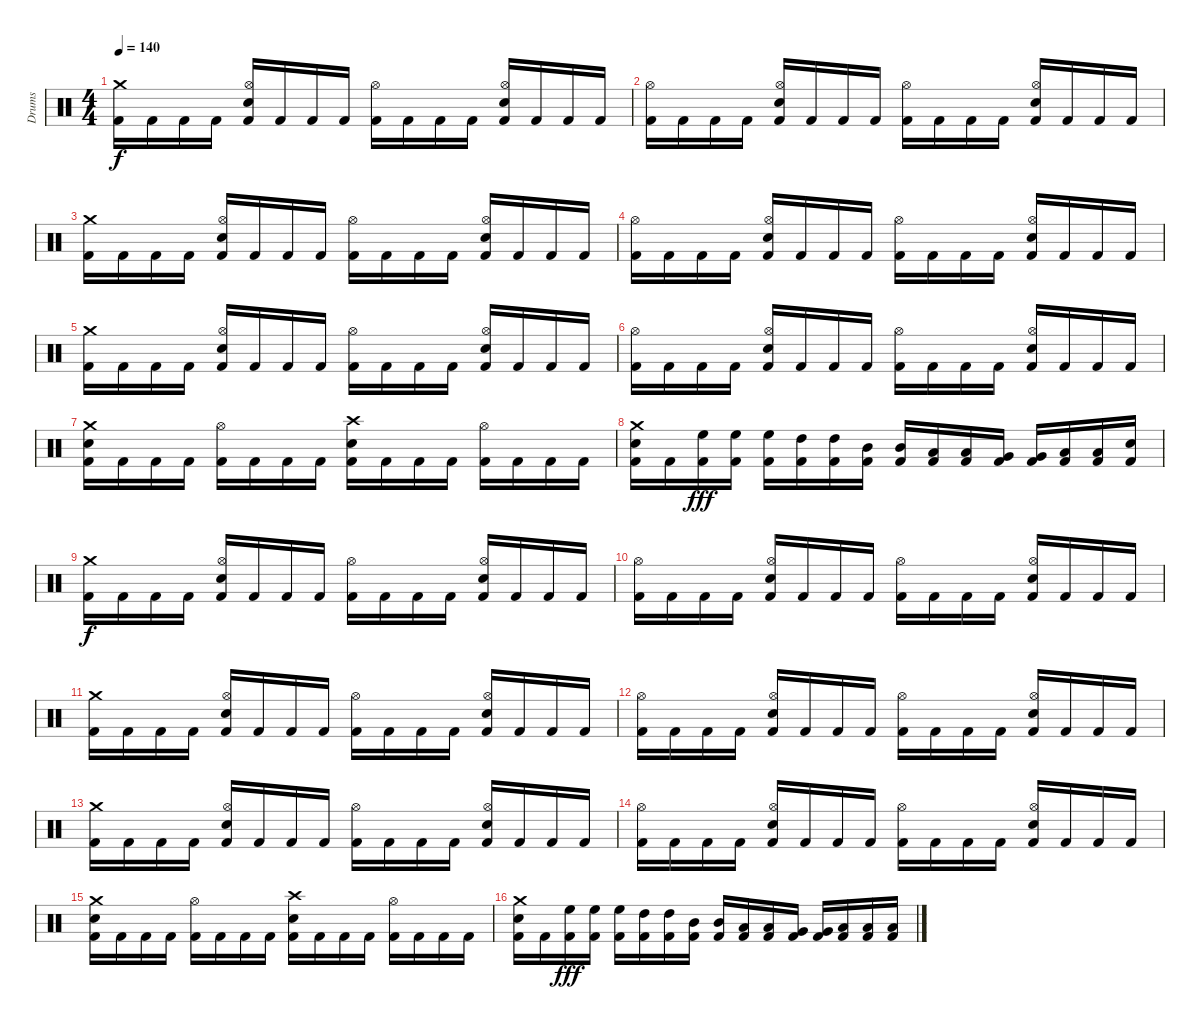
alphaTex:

\track ("Drums" "Drums") {instrument percussion}
\staff {score}
\articulation defaults
\ts (4 4)
\tempo 140
\clef neutral
\ks c
("Crash medium (hit)" "Kick (hit) 2").16{dy f} "Kick (hit) 2".16 "Kick (hit) 2".16 "Kick (hit) 2".16 ("Hi-Hat (open)" "Electric Snare (hit)" "Kick (hit) 2").16 "Kick (hit) 2".16 "Kick (hit) 2".16 "Kick (hit) 2".16 ("Hi-Hat (open)" "Kick (hit) 2").16 "Kick (hit) 2".16 "Kick (hit) 2".16 "Kick (hit) 2".16 ("Hi-Hat (open)" "Electric Snare (hit)" "Kick (hit) 2").16 "Kick (hit) 2".16 "Kick (hit) 2".16 "Kick (hit) 2".16 |
("Hi-Hat (open)" "Kick (hit) 2").16 "Kick (hit) 2".16 "Kick (hit) 2".16 "Kick (hit) 2".16 ("Hi-Hat (open)" "Electric Snare (hit)" "Kick (hit) 2").16 "Kick (hit) 2".16 "Kick (hit) 2".16 "Kick (hit) 2".16 ("Hi-Hat (open)" "Kick (hit) 2").16 "Kick (hit) 2".16 "Kick (hit) 2".16 "Kick (hit) 2".16 ("Hi-Hat (open)" "Electric Snare (hit)" "Kick (hit) 2").16 "Kick (hit) 2".16 "Kick (hit) 2".16 "Kick (hit) 2".16 |
("Crash medium (hit)" "Kick (hit) 2").16 "Kick (hit) 2".16 "Kick (hit) 2".16 "Kick (hit) 2".16 ("Hi-Hat (open)" "Electric Snare (hit)" "Kick (hit) 2").16 "Kick (hit) 2".16 "Kick (hit) 2".16 "Kick (hit) 2".16 ("Hi-Hat (open)" "Kick (hit) 2").16 "Kick (hit) 2".16 "Kick (hit) 2".16 "Kick (hit) 2".16 ("Hi-Hat (open)" "Electric Snare (hit)" "Kick (hit) 2").16 "Kick (hit) 2".16 "Kick (hit) 2".16 "Kick (hit) 2".16 |
("Hi-Hat (open)" "Kick (hit) 2").16 "Kick (hit) 2".16 "Kick (hit) 2".16 "Kick (hit) 2".16 ("Hi-Hat (open)" "Electric Snare (hit)" "Kick (hit) 2").16 "Kick (hit) 2".16 "Kick (hit) 2".16 "Kick (hit) 2".16 ("Hi-Hat (open)" "Kick (hit) 2").16 "Kick (hit) 2".16 "Kick (hit) 2".16 "Kick (hit) 2".16 ("Hi-Hat (open)" "Electric Snare (hit)" "Kick (hit) 2").16 "Kick (hit) 2".16 "Kick (hit) 2".16 "Kick (hit) 2".16 |
("Crash medium (hit)" "Kick (hit) 2").16 "Kick (hit) 2".16 "Kick (hit) 2".16 "Kick (hit) 2".16 ("Hi-Hat (open)" "Electric Snare (hit)" "Kick (hit) 2").16 "Kick (hit) 2".16 "Kick (hit) 2".16 "Kick (hit) 2".16 ("Hi-Hat (open)" "Kick (hit) 2").16 "Kick (hit) 2".16 "Kick (hit) 2".16 "Kick (hit) 2".16 ("Hi-Hat (open)" "Electric Snare (hit)" "Kick (hit) 2").16 "Kick (hit) 2".16 "Kick (hit) 2".16 "Kick (hit) 2".16 |
("Hi-Hat (open)" "Kick (hit) 2").16 "Kick (hit) 2".16 "Kick (hit) 2".16 "Kick (hit) 2".16 ("Hi-Hat (open)" "Electric Snare (hit)" "Kick (hit) 2").16 "Kick (hit) 2".16 "Kick (hit) 2".16 "Kick (hit) 2".16 ("Hi-Hat (open)" "Kick (hit) 2").16 "Kick (hit) 2".16 "Kick (hit) 2".16 "Kick (hit) 2".16 ("Hi-Hat (open)" "Electric Snare (hit)" "Kick (hit) 2").16 "Kick (hit) 2".16 "Kick (hit) 2".16 "Kick (hit) 2".16 |
("Crash medium (hit)" "Electric Snare (hit)" "Kick (hit) 2").16 "Kick (hit) 2".16 "Kick (hit) 2".16 "Kick (hit) 2".16 ("Hi-Hat (open)" "Kick (hit) 2").16 "Kick (hit) 2".16 "Kick (hit) 2".16 "Kick (hit) 2".16 ("Crash high (hit)" "Electric Snare (hit)" "Kick (hit) 2").16 "Kick (hit) 2".16 "Kick (hit) 2".16 "Kick (hit) 2".16 ("Hi-Hat (open)" "Kick (hit) 2").16 "Kick (hit) 2".16 "Kick (hit) 2".16 "Kick (hit) 2".16 |
("Crash medium (hit)" "Electric Snare (hit)" "Kick (hit) 2").16 "Kick (hit) 2".16 ("High Floor Tom (hit)" "Kick (hit) 2").16{dy fff} ("High Floor Tom (hit)" "Kick (hit) 2").16 ("High Floor Tom (hit)" "Kick (hit) 2").16 ("High Tom (hit)" "Kick (hit) 2").16 ("High Tom (hit)" "Kick (hit) 2").16 ("Mid Tom (hit)" "Kick (hit) 2").16 ("Mid Tom (hit)" "Kick (hit) 2").16 ("Low Tom (hit)" "Kick (hit) 2").16 ("Low Tom (hit)" "Kick (hit) 2").16 ("Very Low Tom (hit)" "Kick (hit) 2").16 ("Very Low Tom (hit)" "Kick (hit) 2").16 ("Low Floor Tom (hit)" "Kick (hit) 2").16 ("Low Floor Tom (hit)" "Kick (hit) 2").16 ("Electric Snare (hit)" "Kick (hit) 2").16 |
("Crash medium (hit)" "Kick (hit) 2").16{dy f} "Kick (hit) 2".16 "Kick (hit) 2".16 "Kick (hit) 2".16 ("Hi-Hat (open)" "Electric Snare (hit)" "Kick (hit) 2").16 "Kick (hit) 2".16 "Kick (hit) 2".16 "Kick (hit) 2".16 ("Hi-Hat (open)" "Kick (hit) 2").16 "Kick (hit) 2".16 "Kick (hit) 2".16 "Kick (hit) 2".16 ("Hi-Hat (open)" "Electric Snare (hit)" "Kick (hit) 2").16 "Kick (hit) 2".16 "Kick (hit) 2".16 "Kick (hit) 2".16 |
("Hi-Hat (open)" "Kick (hit) 2").16 "Kick (hit) 2".16 "Kick (hit) 2".16 "Kick (hit) 2".16 ("Hi-Hat (open)" "Electric Snare (hit)" "Kick (hit) 2").16 "Kick (hit) 2".16 "Kick (hit) 2".16 "Kick (hit) 2".16 ("Hi-Hat (open)" "Kick (hit) 2").16 "Kick (hit) 2".16 "Kick (hit) 2".16 "Kick (hit) 2".16 ("Hi-Hat (open)" "Electric Snare (hit)" "Kick (hit) 2").16 "Kick (hit) 2".16 "Kick (hit) 2".16 "Kick (hit) 2".16 |
("Crash medium (hit)" "Kick (hit) 2").16 "Kick (hit) 2".16 "Kick (hit) 2".16 "Kick (hit) 2".16 ("Hi-Hat (open)" "Electric Snare (hit)" "Kick (hit) 2").16 "Kick (hit) 2".16 "Kick (hit) 2".16 "Kick (hit) 2".16 ("Hi-Hat (open)" "Kick (hit) 2").16 "Kick (hit) 2".16 "Kick (hit) 2".16 "Kick (hit) 2".16 ("Hi-Hat (open)" "Electric Snare (hit)" "Kick (hit) 2").16 "Kick (hit) 2".16 "Kick (hit) 2".16 "Kick (hit) 2".16 |
("Hi-Hat (open)" "Kick (hit) 2").16 "Kick (hit) 2".16 "Kick (hit) 2".16 "Kick (hit) 2".16 ("Hi-Hat (open)" "Electric Snare (hit)" "Kick (hit) 2").16 "Kick (hit) 2".16 "Kick (hit) 2".16 "Kick (hit) 2".16 ("Hi-Hat (open)" "Kick (hit) 2").16 "Kick (hit) 2".16 "Kick (hit) 2".16 "Kick (hit) 2".16 ("Hi-Hat (open)" "Electric Snare (hit)" "Kick (hit) 2").16 "Kick (hit) 2".16 "Kick (hit) 2".16 "Kick (hit) 2".16 |
("Crash medium (hit)" "Kick (hit) 2").16 "Kick (hit) 2".16 "Kick (hit) 2".16 "Kick (hit) 2".16 ("Hi-Hat (open)" "Electric Snare (hit)" "Kick (hit) 2").16 "Kick (hit) 2".16 "Kick (hit) 2".16 "Kick (hit) 2".16 ("Hi-Hat (open)" "Kick (hit) 2").16 "Kick (hit) 2".16 "Kick (hit) 2".16 "Kick (hit) 2".16 ("Hi-Hat (open)" "Electric Snare (hit)" "Kick (hit) 2").16 "Kick (hit) 2".16 "Kick (hit) 2".16 "Kick (hit) 2".16 |
("Hi-Hat (open)" "Kick (hit) 2").16 "Kick (hit) 2".16 "Kick (hit) 2".16 "Kick (hit) 2".16 ("Hi-Hat (open)" "Electric Snare (hit)" "Kick (hit) 2").16 "Kick (hit) 2".16 "Kick (hit) 2".16 "Kick (hit) 2".16 ("Hi-Hat (open)" "Kick (hit) 2").16 "Kick (hit) 2".16 "Kick (hit) 2".16 "Kick (hit) 2".16 ("Hi-Hat (open)" "Electric Snare (hit)" "Kick (hit) 2").16 "Kick (hit) 2".16 "Kick (hit) 2".16 "Kick (hit) 2".16 |
("Crash medium (hit)" "Electric Snare (hit)" "Kick (hit) 2").16 "Kick (hit) 2".16 "Kick (hit) 2".16 "Kick (hit) 2".16 ("Hi-Hat (open)" "Kick (hit) 2").16 "Kick (hit) 2".16 "Kick (hit) 2".16 "Kick (hit) 2".16 ("Crash high (hit)" "Electric Snare (hit)" "Kick (hit) 2").16 "Kick (hit) 2".16 "Kick (hit) 2".16 "Kick (hit) 2".16 ("Hi-Hat (open)" "Kick (hit) 2").16 "Kick (hit) 2".16 "Kick (hit) 2".16 "Kick (hit) 2".16 |
("Crash medium (hit)" "Electric Snare (hit)" "Kick (hit) 2").16 "Kick (hit) 2".16 ("High Floor Tom (hit)" "Kick (hit) 2").16{dy fff} ("High Floor Tom (hit)" "Kick (hit) 2").16 ("High Floor Tom (hit)" "Kick (hit) 2").16 ("High Tom (hit)" "Kick (hit) 2").16 ("High Tom (hit)" "Kick (hit) 2").16 ("Mid Tom (hit)" "Kick (hit) 2").16 ("Mid Tom (hit)" "Kick (hit) 2").16 ("Low Tom (hit)" "Kick (hit) 2").16 ("Low Tom (hit)" "Kick (hit) 2").16 ("Very Low Tom (hit)" "Kick (hit) 2").16 ("Very Low Tom (hit)" "Kick (hit) 2").16 ("Low Floor Tom (hit)" "Kick (hit) 2").16 ("Low Floor Tom (hit)" "Kick (hit) 2").16 ("Low Floor Tom (hit)" "Kick (hit) 2").16
